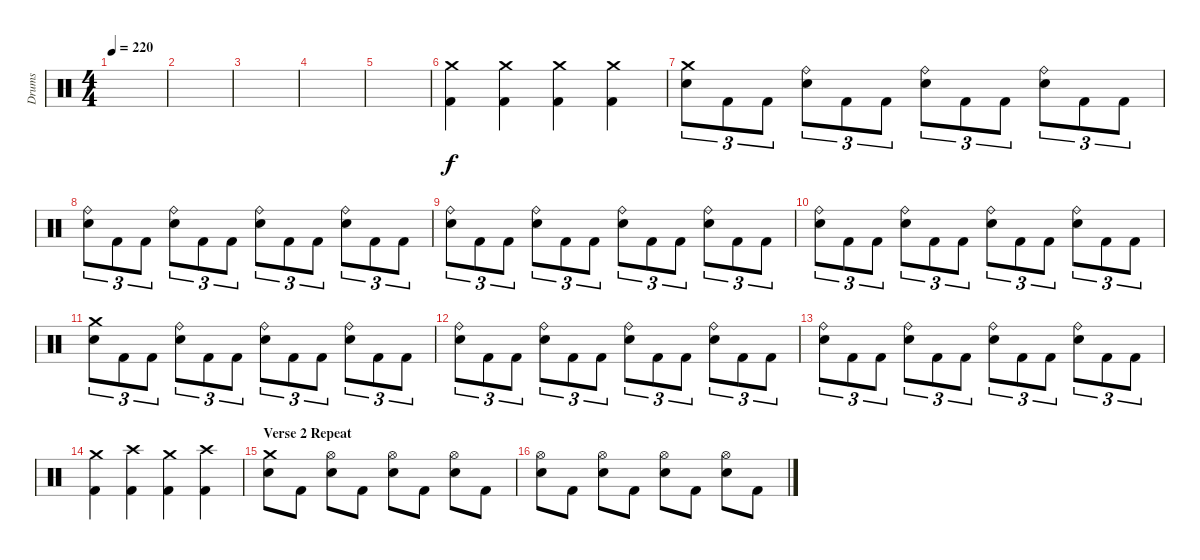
\track ("Drums" "Drums") {instrument percussion}
\staff {score}
\articulation defaults
\ts (4 4)
\tempo 220
\clef neutral
\ks c
|
|
|
|
|
("Crash medium (hit)" "Kick (hit) 2").4 ("Crash medium (hit)" "Kick (hit) 2").4 ("Crash medium (hit)" "Kick (hit) 2").4 ("Crash medium (hit)" "Kick (hit) 2").4 |
("Crash medium (hit)" "Electric Snare (hit)").8{tu (3 2)} "Kick (hit) 2".8{tu (3 2)} "Kick (hit) 2".8{tu (3 2)} ("Ride (bell)" "Electric Snare (hit)").8{tu (3 2)} "Kick (hit) 2".8{tu (3 2)} "Kick (hit) 2".8{tu (3 2)} ("Ride (bell)" "Electric Snare (hit)").8{tu (3 2)} "Kick (hit) 2".8{tu (3 2)} "Kick (hit) 2".8{tu (3 2)} ("Ride (bell)" "Electric Snare (hit)").8{tu (3 2)} "Kick (hit) 2".8{tu (3 2)} "Kick (hit) 2".8{tu (3 2)} |
("Ride (bell)" "Electric Snare (hit)").8{tu (3 2)} "Kick (hit) 2".8{tu (3 2)} "Kick (hit) 2".8{tu (3 2)} ("Ride (bell)" "Electric Snare (hit)").8{tu (3 2)} "Kick (hit) 2".8{tu (3 2)} "Kick (hit) 2".8{tu (3 2)} ("Ride (bell)" "Electric Snare (hit)").8{tu (3 2)} "Kick (hit) 2".8{tu (3 2)} "Kick (hit) 2".8{tu (3 2)} ("Ride (bell)" "Electric Snare (hit)").8{tu (3 2)} "Kick (hit) 2".8{tu (3 2)} "Kick (hit) 2".8{tu (3 2)} |
("Ride (bell)" "Electric Snare (hit)").8{tu (3 2)} "Kick (hit) 2".8{tu (3 2)} "Kick (hit) 2".8{tu (3 2)} ("Ride (bell)" "Electric Snare (hit)").8{tu (3 2)} "Kick (hit) 2".8{tu (3 2)} "Kick (hit) 2".8{tu (3 2)} ("Ride (bell)" "Electric Snare (hit)").8{tu (3 2)} "Kick (hit) 2".8{tu (3 2)} "Kick (hit) 2".8{tu (3 2)} ("Ride (bell)" "Electric Snare (hit)").8{tu (3 2)} "Kick (hit) 2".8{tu (3 2)} "Kick (hit) 2".8{tu (3 2)} |
("Ride (bell)" "Electric Snare (hit)").8{tu (3 2)} "Kick (hit) 2".8{tu (3 2)} "Kick (hit) 2".8{tu (3 2)} ("Ride (bell)" "Electric Snare (hit)").8{tu (3 2)} "Kick (hit) 2".8{tu (3 2)} "Kick (hit) 2".8{tu (3 2)} ("Ride (bell)" "Electric Snare (hit)").8{tu (3 2)} "Kick (hit) 2".8{tu (3 2)} "Kick (hit) 2".8{tu (3 2)} ("Ride (bell)" "Electric Snare (hit)").8{tu (3 2)} "Kick (hit) 2".8{tu (3 2)} "Kick (hit) 2".8{tu (3 2)} |
("Crash medium (hit)" "Electric Snare (hit)").8{tu (3 2)} "Kick (hit) 2".8{tu (3 2)} "Kick (hit) 2".8{tu (3 2)} ("Ride (bell)" "Electric Snare (hit)").8{tu (3 2)} "Kick (hit) 2".8{tu (3 2)} "Kick (hit) 2".8{tu (3 2)} ("Ride (bell)" "Electric Snare (hit)").8{tu (3 2)} "Kick (hit) 2".8{tu (3 2)} "Kick (hit) 2".8{tu (3 2)} ("Ride (bell)" "Electric Snare (hit)").8{tu (3 2)} "Kick (hit) 2".8{tu (3 2)} "Kick (hit) 2".8{tu (3 2)} |
("Ride (bell)" "Electric Snare (hit)").8{tu (3 2)} "Kick (hit) 2".8{tu (3 2)} "Kick (hit) 2".8{tu (3 2)} ("Ride (bell)" "Electric Snare (hit)").8{tu (3 2)} "Kick (hit) 2".8{tu (3 2)} "Kick (hit) 2".8{tu (3 2)} ("Ride (bell)" "Electric Snare (hit)").8{tu (3 2)} "Kick (hit) 2".8{tu (3 2)} "Kick (hit) 2".8{tu (3 2)} ("Ride (bell)" "Electric Snare (hit)").8{tu (3 2)} "Kick (hit) 2".8{tu (3 2)} "Kick (hit) 2".8{tu (3 2)} |
("Ride (bell)" "Electric Snare (hit)").8{tu (3 2)} "Kick (hit) 2".8{tu (3 2)} "Kick (hit) 2".8{tu (3 2)} ("Ride (bell)" "Electric Snare (hit)").8{tu (3 2)} "Kick (hit) 2".8{tu (3 2)} "Kick (hit) 2".8{tu (3 2)} ("Ride (bell)" "Electric Snare (hit)").8{tu (3 2)} "Kick (hit) 2".8{tu (3 2)} "Kick (hit) 2".8{tu (3 2)} ("Ride (bell)" "Electric Snare (hit)").8{tu (3 2)} "Kick (hit) 2".8{tu (3 2)} "Kick (hit) 2".8{tu (3 2)} |
("Crash medium (hit)" "Kick (hit) 2").4 ("Crash high (hit)" "Kick (hit) 2").4 ("Crash medium (hit)" "Kick (hit) 2").4 ("Crash high (hit)" "Kick (hit) 2").4 |
\section ("" "Verse 2 Repeat")
("Crash medium (hit)" "Electric Snare (hit)").8 "Kick (hit) 2".8 ("Hi-Hat (open)" "Electric Snare (hit)").8 "Kick (hit) 2".8 ("Hi-Hat (open)" "Electric Snare (hit)").8 "Kick (hit) 2".8 ("Hi-Hat (open)" "Electric Snare (hit)").8 "Kick (hit) 2".8 |
("Hi-Hat (open)" "Electric Snare (hit)").8 "Kick (hit) 2".8 ("Hi-Hat (open)" "Electric Snare (hit)").8 "Kick (hit) 2".8 ("Hi-Hat (open)" "Electric Snare (hit)").8 "Kick (hit) 2".8 ("Hi-Hat (open)" "Electric Snare (hit)").8 "Kick (hit) 2".8
